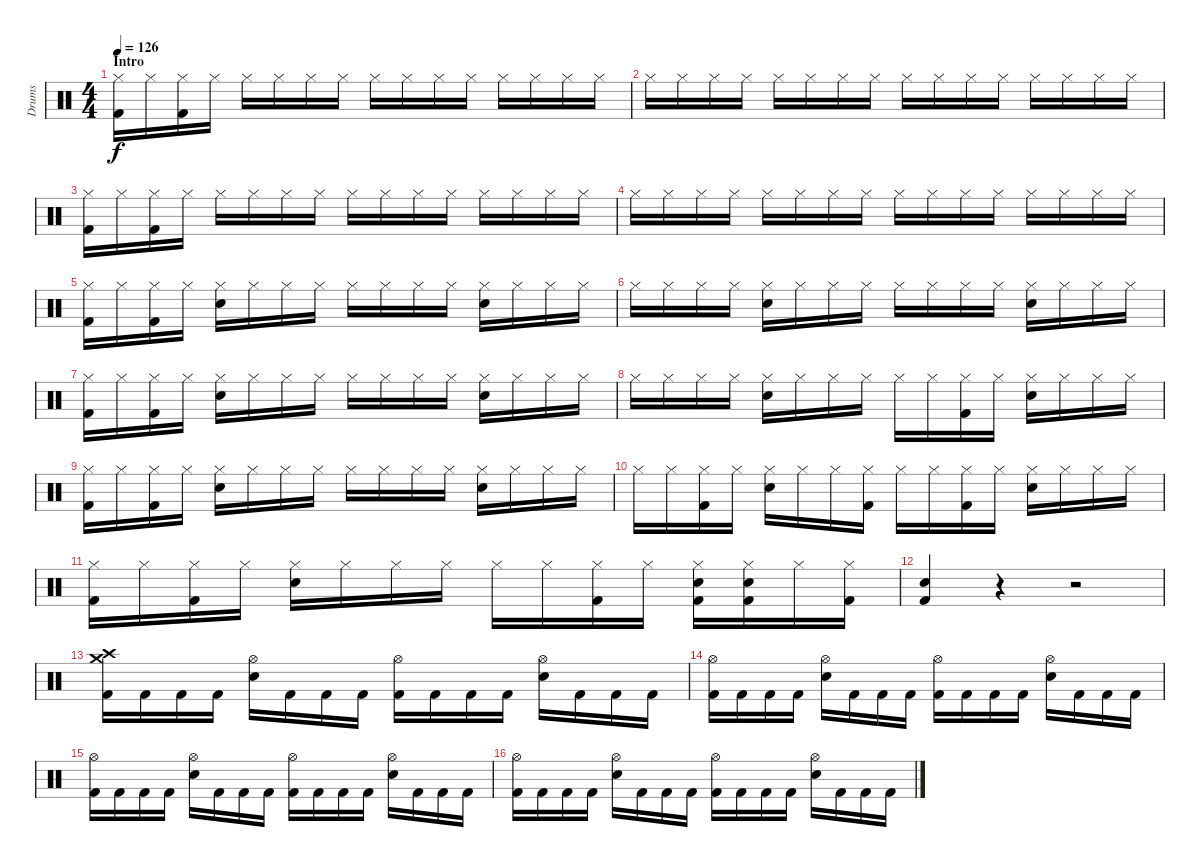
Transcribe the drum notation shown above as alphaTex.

\track ("Drums" "Drums") {instrument percussion}
\staff {score}
\articulation defaults
\ts (4 4)
\section ("" "Intro")
\tempo 126
\clef neutral
\ks c
("Hi-Hat (closed)" "Kick (hit) 2").16{dy f} "Hi-Hat (closed)".16 ("Hi-Hat (closed)" "Kick (hit) 2").16 "Hi-Hat (closed)".16 "Hi-Hat (closed)".16 "Hi-Hat (closed)".16 "Hi-Hat (closed)".16 "Hi-Hat (closed)".16 "Hi-Hat (closed)".16 "Hi-Hat (closed)".16 "Hi-Hat (closed)".16 "Hi-Hat (closed)".16 "Hi-Hat (closed)".16 "Hi-Hat (closed)".16 "Hi-Hat (closed)".16 "Hi-Hat (closed)".16 |
"Hi-Hat (closed)".16 "Hi-Hat (closed)".16 "Hi-Hat (closed)".16 "Hi-Hat (closed)".16 "Hi-Hat (closed)".16 "Hi-Hat (closed)".16 "Hi-Hat (closed)".16 "Hi-Hat (closed)".16 "Hi-Hat (closed)".16 "Hi-Hat (closed)".16 "Hi-Hat (closed)".16 "Hi-Hat (closed)".16 "Hi-Hat (closed)".16 "Hi-Hat (closed)".16 "Hi-Hat (closed)".16 "Hi-Hat (closed)".16 |
("Hi-Hat (closed)" "Kick (hit) 2").16 "Hi-Hat (closed)".16 ("Hi-Hat (closed)" "Kick (hit) 2").16 "Hi-Hat (closed)".16 "Hi-Hat (closed)".16 "Hi-Hat (closed)".16 "Hi-Hat (closed)".16 "Hi-Hat (closed)".16 "Hi-Hat (closed)".16 "Hi-Hat (closed)".16 "Hi-Hat (closed)".16 "Hi-Hat (closed)".16 "Hi-Hat (closed)".16 "Hi-Hat (closed)".16 "Hi-Hat (closed)".16 "Hi-Hat (closed)".16 |
"Hi-Hat (closed)".16 "Hi-Hat (closed)".16 "Hi-Hat (closed)".16 "Hi-Hat (closed)".16 "Hi-Hat (closed)".16 "Hi-Hat (closed)".16 "Hi-Hat (closed)".16 "Hi-Hat (closed)".16 "Hi-Hat (closed)".16 "Hi-Hat (closed)".16 "Hi-Hat (closed)".16 "Hi-Hat (closed)".16 "Hi-Hat (closed)".16 "Hi-Hat (closed)".16 "Hi-Hat (closed)".16 "Hi-Hat (closed)".16 |
("Hi-Hat (closed)" "Kick (hit) 2").16 "Hi-Hat (closed)".16 ("Hi-Hat (closed)" "Kick (hit) 2").16 "Hi-Hat (closed)".16 ("Hi-Hat (closed)" "Electric Snare (hit)").16 "Hi-Hat (closed)".16 "Hi-Hat (closed)".16 "Hi-Hat (closed)".16 "Hi-Hat (closed)".16 "Hi-Hat (closed)".16 "Hi-Hat (closed)".16 "Hi-Hat (closed)".16 ("Hi-Hat (closed)" "Electric Snare (hit)").16 "Hi-Hat (closed)".16 "Hi-Hat (closed)".16 "Hi-Hat (closed)".16 |
"Hi-Hat (closed)".16 "Hi-Hat (closed)".16 "Hi-Hat (closed)".16 "Hi-Hat (closed)".16 ("Hi-Hat (closed)" "Electric Snare (hit)").16 "Hi-Hat (closed)".16 "Hi-Hat (closed)".16 "Hi-Hat (closed)".16 "Hi-Hat (closed)".16 "Hi-Hat (closed)".16 "Hi-Hat (closed)".16 "Hi-Hat (closed)".16 ("Hi-Hat (closed)" "Electric Snare (hit)").16 "Hi-Hat (closed)".16 "Hi-Hat (closed)".16 "Hi-Hat (closed)".16 |
("Hi-Hat (closed)" "Kick (hit) 2").16 "Hi-Hat (closed)".16 ("Hi-Hat (closed)" "Kick (hit) 2").16 "Hi-Hat (closed)".16 ("Hi-Hat (closed)" "Electric Snare (hit)").16 "Hi-Hat (closed)".16 "Hi-Hat (closed)".16 "Hi-Hat (closed)".16 "Hi-Hat (closed)".16 "Hi-Hat (closed)".16 "Hi-Hat (closed)".16 "Hi-Hat (closed)".16 ("Hi-Hat (closed)" "Electric Snare (hit)").16 "Hi-Hat (closed)".16 "Hi-Hat (closed)".16 "Hi-Hat (closed)".16 |
"Hi-Hat (closed)".16 "Hi-Hat (closed)".16 "Hi-Hat (closed)".16 "Hi-Hat (closed)".16 ("Hi-Hat (closed)" "Electric Snare (hit)").16 "Hi-Hat (closed)".16 "Hi-Hat (closed)".16 "Hi-Hat (closed)".16 "Hi-Hat (closed)".16 "Hi-Hat (closed)".16 ("Hi-Hat (closed)" "Kick (hit) 2").16 "Hi-Hat (closed)".16 ("Hi-Hat (closed)" "Electric Snare (hit)").16 "Hi-Hat (closed)".16 "Hi-Hat (closed)".16 "Hi-Hat (closed)".16 |
("Hi-Hat (closed)" "Kick (hit) 2").16 "Hi-Hat (closed)".16 ("Hi-Hat (closed)" "Kick (hit) 2").16 "Hi-Hat (closed)".16 ("Hi-Hat (closed)" "Electric Snare (hit)").16 "Hi-Hat (closed)".16 "Hi-Hat (closed)".16 "Hi-Hat (closed)".16 "Hi-Hat (closed)".16 "Hi-Hat (closed)".16 "Hi-Hat (closed)".16 "Hi-Hat (closed)".16 ("Hi-Hat (closed)" "Electric Snare (hit)").16 "Hi-Hat (closed)".16 "Hi-Hat (closed)".16 "Hi-Hat (closed)".16 |
"Hi-Hat (closed)".16 "Hi-Hat (closed)".16 ("Hi-Hat (closed)" "Kick (hit) 2").16 "Hi-Hat (closed)".16 ("Hi-Hat (closed)" "Electric Snare (hit)").16 "Hi-Hat (closed)".16 "Hi-Hat (closed)".16 ("Hi-Hat (closed)" "Kick (hit) 2").16 "Hi-Hat (closed)".16 "Hi-Hat (closed)".16 ("Hi-Hat (closed)" "Kick (hit) 2").16 "Hi-Hat (closed)".16 ("Hi-Hat (closed)" "Electric Snare (hit)").16 "Hi-Hat (closed)".16 "Hi-Hat (closed)".16 "Hi-Hat (closed)".16 |
("Hi-Hat (closed)" "Kick (hit) 2").16 "Hi-Hat (closed)".16 ("Hi-Hat (closed)" "Kick (hit) 2").16 "Hi-Hat (closed)".16 ("Hi-Hat (closed)" "Electric Snare (hit)").16 "Hi-Hat (closed)".16 "Hi-Hat (closed)".16 "Hi-Hat (closed)".16 "Hi-Hat (closed)".16 "Hi-Hat (closed)".16 ("Hi-Hat (closed)" "Kick (hit) 2").16 "Hi-Hat (closed)".16 ("Hi-Hat (closed)" "Electric Snare (hit)" "Kick (hit) 2").16 ("Hi-Hat (closed)" "Electric Snare (hit)" "Kick (hit) 2").16 "Hi-Hat (closed)".16 ("Hi-Hat (closed)" "Kick (hit) 2").16 |
("Electric Snare (hit)" "Kick (hit) 2").4 r.4 r.2 |
("Crash high (hit)" "Crash medium (hit)" "Kick (hit) 2").16 "Kick (hit) 2".16 "Kick (hit) 2".16 "Kick (hit) 2".16 ("Hi-Hat (open)" "Electric Snare (hit)").16 "Kick (hit) 2".16 "Kick (hit) 2".16 "Kick (hit) 2".16 ("Hi-Hat (open)" "Kick (hit) 2").16 "Kick (hit) 2".16 "Kick (hit) 2".16 "Kick (hit) 2".16 ("Hi-Hat (open)" "Electric Snare (hit)").16 "Kick (hit) 2".16 "Kick (hit) 2".16 "Kick (hit) 2".16 |
("Hi-Hat (open)" "Kick (hit) 2").16 "Kick (hit) 2".16 "Kick (hit) 2".16 "Kick (hit) 2".16 ("Hi-Hat (open)" "Electric Snare (hit)").16 "Kick (hit) 2".16 "Kick (hit) 2".16 "Kick (hit) 2".16 ("Hi-Hat (open)" "Kick (hit) 2").16 "Kick (hit) 2".16 "Kick (hit) 2".16 "Kick (hit) 2".16 ("Hi-Hat (open)" "Electric Snare (hit)").16 "Kick (hit) 2".16 "Kick (hit) 2".16 "Kick (hit) 2".16 |
("Hi-Hat (open)" "Kick (hit) 2").16 "Kick (hit) 2".16 "Kick (hit) 2".16 "Kick (hit) 2".16 ("Hi-Hat (open)" "Electric Snare (hit)").16 "Kick (hit) 2".16 "Kick (hit) 2".16 "Kick (hit) 2".16 ("Hi-Hat (open)" "Kick (hit) 2").16 "Kick (hit) 2".16 "Kick (hit) 2".16 "Kick (hit) 2".16 ("Hi-Hat (open)" "Electric Snare (hit)").16 "Kick (hit) 2".16 "Kick (hit) 2".16 "Kick (hit) 2".16 |
("Hi-Hat (open)" "Kick (hit) 2").16 "Kick (hit) 2".16 "Kick (hit) 2".16 "Kick (hit) 2".16 ("Hi-Hat (open)" "Electric Snare (hit)").16 "Kick (hit) 2".16 "Kick (hit) 2".16 "Kick (hit) 2".16 ("Hi-Hat (open)" "Kick (hit) 2").16 "Kick (hit) 2".16 "Kick (hit) 2".16 "Kick (hit) 2".16 ("Hi-Hat (open)" "Electric Snare (hit)").16 "Kick (hit) 2".16 "Kick (hit) 2".16 "Kick (hit) 2".16
